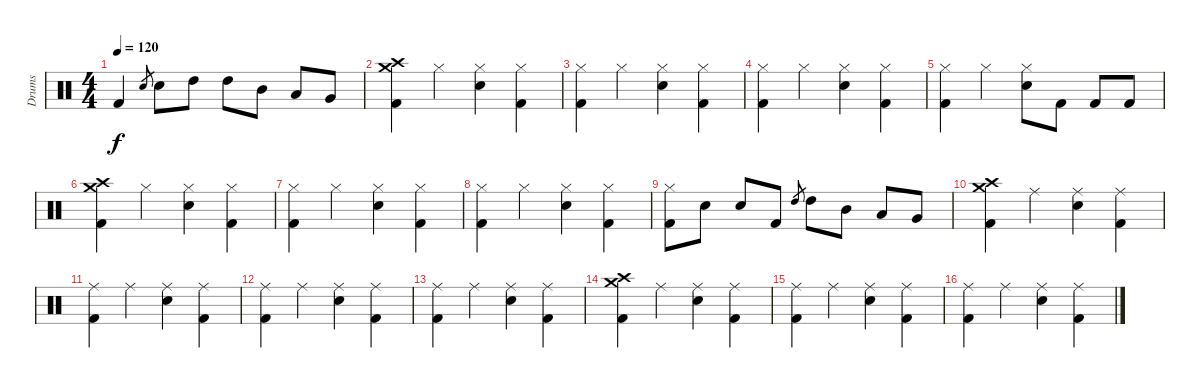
\track ("Drums" "Drums") {instrument percussion}
\staff {score}
\articulation defaults
\ts (4 4)
\tempo 120
\clef neutral
\ks c "Kick (hit) 2".4{dy f} "Electric Snare (hit)".8{gr} "Electric Snare (hit)".8 "High Tom (hit)".8 "High Tom (hit)".8 "Mid Tom (hit)".8 "Low Tom (hit)".8 "Very Low Tom (hit)".8
|
("Crash medium (hit)" "Crash high (hit)" "Kick (hit) 2").4 "Hi-Hat (closed)".4 ("Electric Snare (hit)" "Hi-Hat (closed)").4 ("Kick (hit) 2" "Hi-Hat (closed)").4 |
("Kick (hit) 2" "Hi-Hat (closed)").4 "Hi-Hat (closed)".4 ("Electric Snare (hit)" "Hi-Hat (closed)").4 ("Kick (hit) 2" "Hi-Hat (closed)").4 |
("Kick (hit) 2" "Hi-Hat (closed)").4 "Hi-Hat (closed)".4 ("Electric Snare (hit)" "Hi-Hat (closed)").4 ("Kick (hit) 2" "Hi-Hat (closed)").4 |
("Kick (hit) 2" "Hi-Hat (closed)").4 "Hi-Hat (closed)".4 ("Electric Snare (hit)" "Hi-Hat (closed)").8 "Kick (hit) 2".8 "Kick (hit) 2".8 "Kick (hit) 2".8 |
("Crash medium (hit)" "Crash high (hit)" "Kick (hit) 2").4 "Hi-Hat (closed)".4 ("Electric Snare (hit)" "Hi-Hat (closed)").4 ("Kick (hit) 2" "Hi-Hat (closed)").4 |
("Kick (hit) 2" "Hi-Hat (closed)").4 "Hi-Hat (closed)".4 ("Electric Snare (hit)" "Hi-Hat (closed)").4 ("Kick (hit) 2" "Hi-Hat (closed)").4 |
("Kick (hit) 2" "Hi-Hat (closed)").4 "Hi-Hat (closed)".4 ("Electric Snare (hit)" "Hi-Hat (closed)").4 ("Kick (hit) 2" "Hi-Hat (closed)").4 |
("Kick (hit) 2" "Hi-Hat (closed)").8 "Electric Snare (hit)".8 "Electric Snare (hit)".8 "Kick (hit) 2".8 "High Tom (hit)".8{gr} "High Tom (hit)".8 "Mid Tom (hit)".8 "Low Tom (hit)".8 "Very Low Tom (hit)".8 |
("Crash medium (hit)" "Crash high (hit)" "Kick (hit) 2").4 "Ride (middle)".4 ("Electric Snare (hit)" "Ride (middle)").4 ("Kick (hit) 2" "Ride (middle)").4 |
("Kick (hit) 2" "Ride (middle)").4 "Ride (middle)".4 ("Electric Snare (hit)" "Ride (middle)").4 ("Kick (hit) 2" "Ride (middle)").4 |
("Kick (hit) 2" "Ride (middle)").4 "Ride (middle)".4 ("Electric Snare (hit)" "Ride (middle)").4 ("Kick (hit) 2" "Ride (middle)").4 |
("Kick (hit) 2" "Ride (middle)").4 "Ride (middle)".4 ("Electric Snare (hit)" "Ride (middle)").4 ("Kick (hit) 2" "Ride (middle)").4 |
("Crash medium (hit)" "Crash high (hit)" "Kick (hit) 2").4 "Ride (middle)".4 ("Electric Snare (hit)" "Ride (middle)").4 ("Kick (hit) 2" "Ride (middle)").4 |
("Kick (hit) 2" "Ride (middle)").4 "Ride (middle)".4 ("Electric Snare (hit)" "Ride (middle)").4 ("Kick (hit) 2" "Ride (middle)").4 |
("Kick (hit) 2" "Ride (middle)").4 "Ride (middle)".4 ("Electric Snare (hit)" "Ride (middle)").4 ("Kick (hit) 2" "Ride (middle)").4
